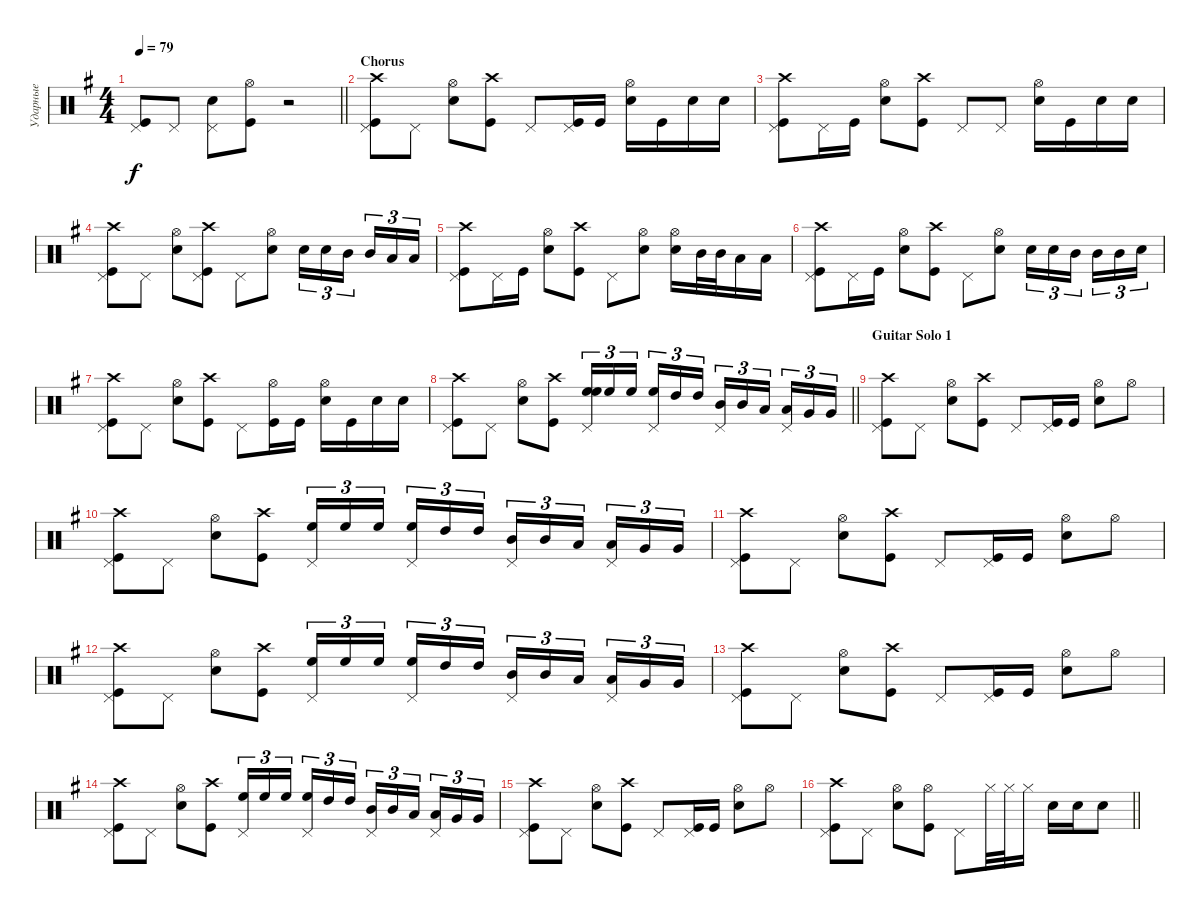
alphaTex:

\track ("Ударные" "Ударные") {instrument percussion}
\staff {score}
\articulation defaults
\ts (4 4)
\tempo 79
\clef neutral
\barLineRight lightlight
\ks eminor
("Kick (hit)" "Pedal Hi-Hat (hit)").8{dy f} "Pedal Hi-Hat (hit)".8 ("Pedal Hi-Hat (hit)" "Snare (hit) 2").8 ("Kick (hit)" "Hi-Hat (open)").8 r.2 |
\section ("" "Chorus")
("Kick (hit)" "Crash high (hit)" "Pedal Hi-Hat (hit)").8 "Pedal Hi-Hat (hit)".8 ("Snare (hit) 2" "Hi-Hat (open)").8 ("Kick (hit)" "Crash high (hit)").8 "Pedal Hi-Hat (hit)".8 ("Kick (hit)" "Pedal Hi-Hat (hit)").16 "Kick (hit)".16 ("Snare (hit) 2" "Hi-Hat (open)").16 "Kick (hit)".16 "Snare (hit) 2".16 "Snare (hit) 2".16 |
("Kick (hit)" "Crash high (hit)" "Pedal Hi-Hat (hit)").8 "Pedal Hi-Hat (hit)".16 "Kick (hit)".16 ("Snare (hit) 2" "Hi-Hat (open)").8 ("Kick (hit)" "Crash high (hit)").8 "Pedal Hi-Hat (hit)".8 "Pedal Hi-Hat (hit)".8 ("Snare (hit) 2" "Hi-Hat (open)").16 "Kick (hit)".16 "Snare (hit) 2".16 "Snare (hit) 2".16 |
("Kick (hit)" "Crash high (hit)" "Pedal Hi-Hat (hit)").8 "Pedal Hi-Hat (hit)".8 ("Snare (hit) 2" "Hi-Hat (open)").8 ("Kick (hit)" "Crash high (hit)" "Pedal Hi-Hat (hit)").8 "Pedal Hi-Hat (hit)".8 ("Snare (hit) 2" "Hi-Hat (open)").8 "Snare (hit) 2".16{tu (3 2)} "Snare (hit) 2".16{tu (3 2)} "Mid Tom (hit)".16{tu (3 2) beam splitsecondary} "Mid Tom (hit)".16{tu (3 2)} "Low Tom (hit)".16{tu (3 2)} "Low Tom (hit)".16{tu (3 2)} |
("Kick (hit)" "Crash high (hit)" "Pedal Hi-Hat (hit)").8 "Pedal Hi-Hat (hit)".16 "Kick (hit)".16 ("Snare (hit) 2" "Hi-Hat (open)").8 ("Kick (hit)" "Crash high (hit)").8 "Pedal Hi-Hat (hit)".8 ("Hi-Hat (open)" "Snare (hit) 2").8 ("Snare (hit) 2" "Hi-Hat (open)").16 "Mid Tom (hit)".32 "Mid Tom (hit)".32 "Low Tom (hit)".16 "Low Tom (hit)".16 |
("Kick (hit)" "Crash high (hit)" "Pedal Hi-Hat (hit)").8 "Pedal Hi-Hat (hit)".16 "Kick (hit)".16 ("Snare (hit) 2" "Hi-Hat (open)").8 ("Kick (hit)" "Crash high (hit)").8 "Pedal Hi-Hat (hit)".8 ("Hi-Hat (open)" "Snare (hit) 2").8 "Snare (hit) 2".16{tu (3 2)} "Snare (hit) 2".16{tu (3 2)} "Mid Tom (hit)".16{tu (3 2) beam splitsecondary} "Mid Tom (hit)".16{tu (3 2)} "Mid Tom (hit)".16{tu (3 2)} "Snare (hit) 2".16{tu (3 2)} |
("Kick (hit)" "Crash high (hit)" "Pedal Hi-Hat (hit)").8 "Pedal Hi-Hat (hit)".8 ("Snare (hit) 2" "Hi-Hat (open)").8 ("Kick (hit)" "Crash high (hit)").8 "Pedal Hi-Hat (hit)".8 ("Hi-Hat (open)" "Kick (hit)").16 "Kick (hit)".16 ("Snare (hit) 2" "Hi-Hat (open)").16 "Kick (hit)".16 "Snare (hit) 2".16 "Snare (hit) 2".16 |
\barLineRight lightlight
("Kick (hit)" "Pedal Hi-Hat (hit)" "Crash high (hit)").8 "Pedal Hi-Hat (hit)".8 ("Snare (hit) 2" "Hi-Hat (open)").8 ("Kick (hit)" "Crash high (hit)").8 ("High Floor Tom (hit)" "High Floor Tom (hit)" "Pedal Hi-Hat (hit)").16{tu (3 2) bd 240} "High Floor Tom (hit)".16{tu (3 2)} "High Floor Tom (hit)".16{tu (3 2) beam splitsecondary} ("High Floor Tom (hit)" "Pedal Hi-Hat (hit)").16{tu (3 2)} "High Tom (hit)".16{tu (3 2)} "High Tom (hit)".16{tu (3 2)} ("Mid Tom (hit)" "Pedal Hi-Hat (hit)").16{tu (3 2)} "Mid Tom (hit)".16{tu (3 2)} "Low Tom (hit)".16{tu (3 2) beam splitsecondary} ("Low Tom (hit)" "Pedal Hi-Hat (hit)").16{tu (3 2)} "Very Low Tom (hit)".16{tu (3 2)} "Very Low Tom (hit)".16{tu (3 2)} |
\section ("" "Guitar Solo 1")
("Kick (hit)" "Crash high (hit)" "Pedal Hi-Hat (hit)").8 "Pedal Hi-Hat (hit)".8 ("Hi-Hat (open)" "Snare (hit) 2").8 ("Crash high (hit)" "Kick (hit)").8 "Pedal Hi-Hat (hit)".8 ("Pedal Hi-Hat (hit)" "Kick (hit)").16 "Kick (hit)".16 ("Hi-Hat (open)" "Snare (hit) 2").8 "Hi-Hat (open)".8 |
("Kick (hit)" "Crash high (hit)" "Pedal Hi-Hat (hit)").8 "Pedal Hi-Hat (hit)".8 ("Hi-Hat (open)" "Snare (hit) 2").8 ("Kick (hit)" "Crash high (hit)").8 ("High Floor Tom (hit)" "Pedal Hi-Hat (hit)").16{tu (3 2) bd 240} "High Floor Tom (hit)".16{tu (3 2)} "High Floor Tom (hit)".16{tu (3 2) beam splitsecondary} ("High Floor Tom (hit)" "Pedal Hi-Hat (hit)").16{tu (3 2)} "High Tom (hit)".16{tu (3 2)} "High Tom (hit)".16{tu (3 2)} ("Mid Tom (hit)" "Pedal Hi-Hat (hit)").16{tu (3 2)} "Mid Tom (hit)".16{tu (3 2)} "Low Tom (hit)".16{tu (3 2) beam splitsecondary} ("Low Tom (hit)" "Pedal Hi-Hat (hit)").16{tu (3 2)} "Very Low Tom (hit)".16{tu (3 2)} "Very Low Tom (hit)".16{tu (3 2)} |
("Kick (hit)" "Crash high (hit)" "Pedal Hi-Hat (hit)").8 "Pedal Hi-Hat (hit)".8 ("Hi-Hat (open)" "Snare (hit) 2").8 ("Crash high (hit)" "Kick (hit)").8 "Pedal Hi-Hat (hit)".8 ("Pedal Hi-Hat (hit)" "Kick (hit)").16 "Kick (hit)".16 ("Hi-Hat (open)" "Snare (hit) 2").8 "Hi-Hat (open)".8 |
("Kick (hit)" "Crash high (hit)" "Pedal Hi-Hat (hit)").8 "Pedal Hi-Hat (hit)".8 ("Hi-Hat (open)" "Snare (hit) 2").8 ("Kick (hit)" "Crash high (hit)").8 ("High Floor Tom (hit)" "Pedal Hi-Hat (hit)").16{tu (3 2) bd 240} "High Floor Tom (hit)".16{tu (3 2)} "High Floor Tom (hit)".16{tu (3 2) beam splitsecondary} ("High Floor Tom (hit)" "Pedal Hi-Hat (hit)").16{tu (3 2)} "High Tom (hit)".16{tu (3 2)} "High Tom (hit)".16{tu (3 2)} ("Mid Tom (hit)" "Pedal Hi-Hat (hit)").16{tu (3 2)} "Mid Tom (hit)".16{tu (3 2)} "Low Tom (hit)".16{tu (3 2) beam splitsecondary} ("Low Tom (hit)" "Pedal Hi-Hat (hit)").16{tu (3 2)} "Very Low Tom (hit)".16{tu (3 2)} "Very Low Tom (hit)".16{tu (3 2)} |
("Kick (hit)" "Crash high (hit)" "Pedal Hi-Hat (hit)").8 "Pedal Hi-Hat (hit)".8 ("Hi-Hat (open)" "Snare (hit) 2").8 ("Crash high (hit)" "Kick (hit)").8 "Pedal Hi-Hat (hit)".8 ("Pedal Hi-Hat (hit)" "Kick (hit)").16 "Kick (hit)".16 ("Hi-Hat (open)" "Snare (hit) 2").8 "Hi-Hat (open)".8 |
("Kick (hit)" "Crash high (hit)" "Pedal Hi-Hat (hit)").8 "Pedal Hi-Hat (hit)".8 ("Hi-Hat (open)" "Snare (hit) 2").8 ("Kick (hit)" "Crash high (hit)").8 ("High Floor Tom (hit)" "Pedal Hi-Hat (hit)").16{tu (3 2) bd 240} "High Floor Tom (hit)".16{tu (3 2)} "High Floor Tom (hit)".16{tu (3 2) beam splitsecondary} ("High Floor Tom (hit)" "Pedal Hi-Hat (hit)").16{tu (3 2)} "High Tom (hit)".16{tu (3 2)} "High Tom (hit)".16{tu (3 2)} ("Mid Tom (hit)" "Pedal Hi-Hat (hit)").16{tu (3 2)} "Mid Tom (hit)".16{tu (3 2)} "Low Tom (hit)".16{tu (3 2) beam splitsecondary} ("Low Tom (hit)" "Pedal Hi-Hat (hit)").16{tu (3 2)} "Very Low Tom (hit)".16{tu (3 2)} "Very Low Tom (hit)".16{tu (3 2)} |
("Kick (hit)" "Crash high (hit)" "Pedal Hi-Hat (hit)").8 "Pedal Hi-Hat (hit)".8 ("Hi-Hat (open)" "Snare (hit) 2").8 ("Crash high (hit)" "Kick (hit)").8 "Pedal Hi-Hat (hit)".8 ("Kick (hit)" "Pedal Hi-Hat (hit)").16 "Kick (hit)".16 ("Hi-Hat (open)" "Snare (hit) 2").8 "Hi-Hat (open)".8 |
\barLineRight lightlight
("Kick (hit)" "Crash high (hit)" "Pedal Hi-Hat (hit)").8 "Pedal Hi-Hat (hit)".8 ("Hi-Hat (open)" "Snare (hit) 2").8 ("Hi-Hat (open)" "Kick (hit)").8 "Pedal Hi-Hat (hit)".8 "Hi-Hat (closed)".32 "Hi-Hat (closed)".32 "Hi-Hat (closed)".16 "Snare (hit) 2".16 "Snare (hit) 2".16 "Snare (hit) 2".8
